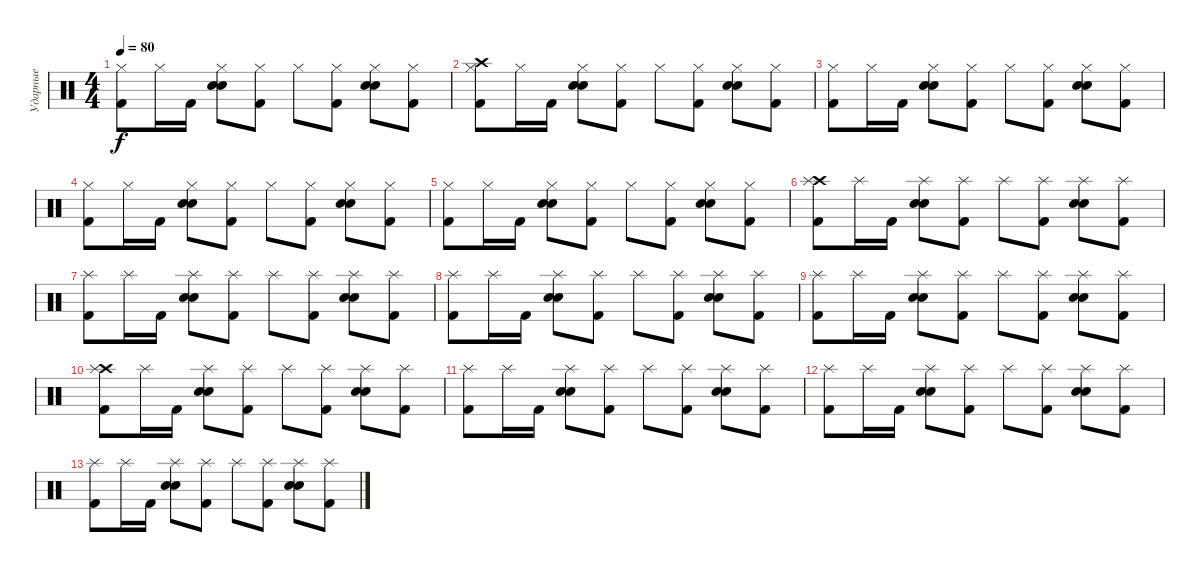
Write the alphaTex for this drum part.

\track ("Ударные" "Ударные") {instrument percussion}
\staff {score}
\articulation defaults
\ts (4 4)
\tempo 80
\clef neutral
\ks c
("Hi-Hat (closed)" "Kick (hit) 2").8{dy f} "Hi-Hat (closed)".16 "Kick (hit) 2".16 ("Hi-Hat (closed)" "Snare (hit) 2" "Snare (hit) 2").8 ("Hi-Hat (closed)" "Kick (hit) 2").8 "Hi-Hat (closed)".8 ("Hi-Hat (closed)" "Kick (hit) 2").8 ("Hi-Hat (closed)" "Snare (hit) 2" "Snare (hit) 2").8 ("Hi-Hat (closed)" "Kick (hit) 2").8 |
("Crash high (hit)" "Hi-Hat (closed)" "Kick (hit) 2").8 "Hi-Hat (closed)".16 "Kick (hit) 2".16 ("Hi-Hat (closed)" "Snare (hit) 2" "Snare (hit) 2").8 ("Hi-Hat (closed)" "Kick (hit) 2").8 "Hi-Hat (closed)".8 ("Hi-Hat (closed)" "Kick (hit) 2").8 ("Hi-Hat (closed)" "Snare (hit) 2" "Snare (hit) 2").8 ("Hi-Hat (closed)" "Kick (hit) 2").8 |
("Hi-Hat (closed)" "Kick (hit) 2").8 "Hi-Hat (closed)".16 "Kick (hit) 2".16 ("Hi-Hat (closed)" "Snare (hit) 2" "Snare (hit) 2").8 ("Hi-Hat (closed)" "Kick (hit) 2").8 "Hi-Hat (closed)".8 ("Hi-Hat (closed)" "Kick (hit) 2").8 ("Hi-Hat (closed)" "Snare (hit) 2" "Snare (hit) 2").8 ("Hi-Hat (closed)" "Kick (hit) 2").8 |
("Hi-Hat (closed)" "Kick (hit) 2").8 "Hi-Hat (closed)".16 "Kick (hit) 2".16 ("Hi-Hat (closed)" "Snare (hit) 2" "Snare (hit) 2").8 ("Hi-Hat (closed)" "Kick (hit) 2").8 "Hi-Hat (closed)".8 ("Hi-Hat (closed)" "Kick (hit) 2").8 ("Hi-Hat (closed)" "Snare (hit) 2" "Snare (hit) 2").8 ("Hi-Hat (closed)" "Kick (hit) 2").8 |
("Hi-Hat (closed)" "Kick (hit) 2").8 "Hi-Hat (closed)".16 "Kick (hit) 2".16 ("Hi-Hat (closed)" "Snare (hit) 2" "Snare (hit) 2").8 ("Hi-Hat (closed)" "Kick (hit) 2").8 "Hi-Hat (closed)".8 ("Hi-Hat (closed)" "Kick (hit) 2").8 ("Hi-Hat (closed)" "Snare (hit) 2" "Snare (hit) 2").8 ("Hi-Hat (closed)" "Kick (hit) 2").8 |
("Crash high (hit)" "Splash (hit)" "Kick (hit) 2").8 "Splash (hit)".16 "Kick (hit) 2".16 ("Splash (hit)" "Snare (hit) 2" "Snare (hit) 2").8 ("Splash (hit)" "Kick (hit) 2").8 "Splash (hit)".8 ("Splash (hit)" "Kick (hit) 2").8 ("Splash (hit)" "Snare (hit) 2" "Snare (hit) 2").8 ("Splash (hit)" "Kick (hit) 2").8 |
("Splash (hit)" "Kick (hit) 2").8 "Splash (hit)".16 "Kick (hit) 2".16 ("Splash (hit)" "Snare (hit) 2" "Snare (hit) 2").8 ("Splash (hit)" "Kick (hit) 2").8 "Splash (hit)".8 ("Splash (hit)" "Kick (hit) 2").8 ("Splash (hit)" "Snare (hit) 2" "Snare (hit) 2").8 ("Splash (hit)" "Kick (hit) 2").8 |
("Splash (hit)" "Kick (hit) 2").8 "Splash (hit)".16 "Kick (hit) 2".16 ("Splash (hit)" "Snare (hit) 2" "Snare (hit) 2").8 ("Splash (hit)" "Kick (hit) 2").8 "Splash (hit)".8 ("Splash (hit)" "Kick (hit) 2").8 ("Splash (hit)" "Snare (hit) 2" "Snare (hit) 2").8 ("Splash (hit)" "Kick (hit) 2").8 |
("Splash (hit)" "Kick (hit) 2").8 "Splash (hit)".16 "Kick (hit) 2".16 ("Splash (hit)" "Snare (hit) 2" "Snare (hit) 2").8 ("Splash (hit)" "Kick (hit) 2").8 "Splash (hit)".8 ("Splash (hit)" "Kick (hit) 2").8 ("Splash (hit)" "Snare (hit) 2" "Snare (hit) 2").8 ("Splash (hit)" "Kick (hit) 2").8 |
("Crash high (hit)" "Splash (hit)" "Kick (hit) 2").8 "Splash (hit)".16 "Kick (hit) 2".16 ("Splash (hit)" "Snare (hit) 2" "Snare (hit) 2").8 ("Splash (hit)" "Kick (hit) 2").8 "Splash (hit)".8 ("Splash (hit)" "Kick (hit) 2").8 ("Splash (hit)" "Snare (hit) 2" "Snare (hit) 2").8 ("Splash (hit)" "Kick (hit) 2").8 |
("Splash (hit)" "Kick (hit) 2").8 "Splash (hit)".16 "Kick (hit) 2".16 ("Splash (hit)" "Snare (hit) 2" "Snare (hit) 2").8 ("Splash (hit)" "Kick (hit) 2").8 "Splash (hit)".8 ("Splash (hit)" "Kick (hit) 2").8 ("Splash (hit)" "Snare (hit) 2" "Snare (hit) 2").8 ("Splash (hit)" "Kick (hit) 2").8 |
("Splash (hit)" "Kick (hit) 2").8 "Splash (hit)".16 "Kick (hit) 2".16 ("Splash (hit)" "Snare (hit) 2" "Snare (hit) 2").8 ("Splash (hit)" "Kick (hit) 2").8 "Splash (hit)".8 ("Splash (hit)" "Kick (hit) 2").8 ("Splash (hit)" "Snare (hit) 2" "Snare (hit) 2").8 ("Splash (hit)" "Kick (hit) 2").8 |
("Splash (hit)" "Kick (hit) 2").8 "Splash (hit)".16 "Kick (hit) 2".16 ("Splash (hit)" "Snare (hit) 2" "Snare (hit) 2").8 ("Splash (hit)" "Kick (hit) 2").8 "Splash (hit)".8 ("Splash (hit)" "Kick (hit) 2").8 ("Splash (hit)" "Snare (hit) 2" "Snare (hit) 2").8 ("Splash (hit)" "Kick (hit) 2").8
